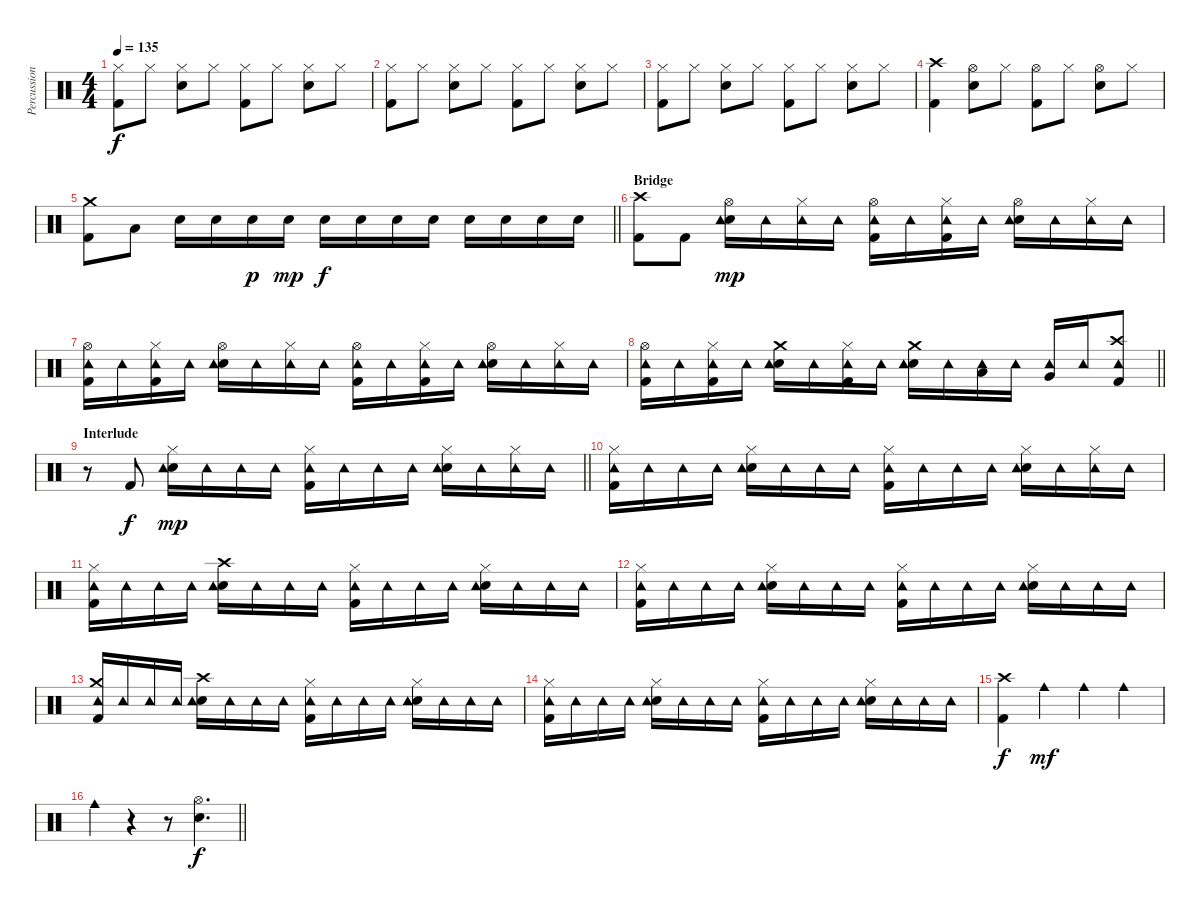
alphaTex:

\track ("Percussion" "Percussion") {instrument percussion}
\staff {score}
\articulation defaults
\ts (4 4)
\tempo 135
\clef neutral
\ks c
("Hi-Hat (closed)" "Kick (hit) 2").8{dy f} "Hi-Hat (closed)".8 ("Hi-Hat (closed)" "Electric Snare (hit)").8 "Hi-Hat (closed)".8 ("Hi-Hat (closed)" "Kick (hit) 2").8 "Hi-Hat (closed)".8 ("Hi-Hat (closed)" "Electric Snare (hit)").8 "Hi-Hat (closed)".8 |
("Hi-Hat (closed)" "Kick (hit) 2").8 "Hi-Hat (closed)".8 ("Hi-Hat (closed)" "Electric Snare (hit)").8 "Hi-Hat (closed)".8 ("Hi-Hat (closed)" "Kick (hit) 2").8 "Hi-Hat (closed)".8 ("Hi-Hat (closed)" "Electric Snare (hit)").8 "Hi-Hat (closed)".8 |
("Hi-Hat (closed)" "Kick (hit) 2").8 "Hi-Hat (closed)".8 ("Hi-Hat (closed)" "Electric Snare (hit)").8 "Hi-Hat (closed)".8 ("Hi-Hat (closed)" "Kick (hit) 2").8 "Hi-Hat (closed)".8 ("Hi-Hat (closed)" "Electric Snare (hit)").8 "Hi-Hat (closed)".8 |
("Crash high (hit)" "Kick (hit) 2").4 ("Hi-Hat (open)" "Electric Snare (hit)").8 "Hi-Hat (closed)".8 ("Hi-Hat (open)" "Kick (hit) 2").8 "Hi-Hat (closed)".8 ("Hi-Hat (open)" "Electric Snare (hit)").8 "Hi-Hat (closed)".8 |
\barLineRight lightlight
("Crash medium (hit)" "Kick (hit) 2").8 "Low Tom (hit)".8 "Electric Snare (hit)".16 "Electric Snare (hit)".16 "Electric Snare (hit)".16{dy p} "Electric Snare (hit)".16{dy mp} "Electric Snare (hit)".16{dy f} "Electric Snare (hit)".16 "Electric Snare (hit)".16 "Electric Snare (hit)".16 "Electric Snare (hit)".16 "Electric Snare (hit)".16 "Electric Snare (hit)".16 "Electric Snare (hit)".16 |
\section ("" "Bridge")
("Crash high (hit)" "Kick (hit) 2").8 "Kick (hit) 2".8 ("Hi-Hat (open)" "Electric Snare (hit)" "Tambourine (hit)").16{dy mp} "Tambourine (hit)".16 ("Hi-Hat (closed)" "Tambourine (hit)").16 "Tambourine (hit)".16 ("Hi-Hat (open)" "Tambourine (hit)" "Kick (hit) 2").16 "Tambourine (hit)".16 ("Hi-Hat (closed)" "Tambourine (hit)" "Kick (hit) 2").16 "Tambourine (hit)".16 ("Hi-Hat (open)" "Electric Snare (hit)" "Tambourine (hit)").16 "Tambourine (hit)".16 ("Hi-Hat (closed)" "Tambourine (hit)").16 "Tambourine (hit)".16 |
("Hi-Hat (open)" "Tambourine (hit)" "Kick (hit) 2").16 "Tambourine (hit)".16 ("Hi-Hat (closed)" "Tambourine (hit)" "Kick (hit) 2").16 "Tambourine (hit)".16 ("Hi-Hat (open)" "Electric Snare (hit)" "Tambourine (hit)").16 "Tambourine (hit)".16 ("Hi-Hat (closed)" "Tambourine (hit)").16 "Tambourine (hit)".16 ("Hi-Hat (open)" "Tambourine (hit)" "Kick (hit) 2").16 "Tambourine (hit)".16 ("Hi-Hat (closed)" "Tambourine (hit)" "Kick (hit) 2").16 "Tambourine (hit)".16 ("Hi-Hat (open)" "Electric Snare (hit)" "Tambourine (hit)").16 "Tambourine (hit)".16 ("Hi-Hat (closed)" "Tambourine (hit)").16 "Tambourine (hit)".16 |
\barLineRight lightlight
("Hi-Hat (open)" "Tambourine (hit)" "Kick (hit) 2").16 "Tambourine (hit)".16 ("Hi-Hat (closed)" "Tambourine (hit)" "Kick (hit) 2").16 "Tambourine (hit)".16 ("Crash medium (hit)" "Electric Snare (hit)" "Tambourine (hit)").16 "Tambourine (hit)".16 ("Hi-Hat (closed)" "Tambourine (hit)" "Kick (hit) 2").16 "Tambourine (hit)".16 ("Crash medium (hit)" "Electric Snare (hit)" "Tambourine (hit)").16 "Tambourine (hit)".16 ("Low Tom (hit)" "Tambourine (hit)").16 "Tambourine (hit)".16 ("Very Low Tom (hit)" "Tambourine (hit)").16 "Tambourine (hit)".16 ("Crash high (hit)" "Tambourine (hit)" "Kick (hit) 2").8 |
\section ("" "Interlude")
\barLineRight lightlight
r.8 "Kick (hit) 2".8{dy f} ("Hi-Hat (closed)" "Electric Snare (hit)" "Tambourine (hit)").16{dy mp} "Tambourine (hit)".16 "Tambourine (hit)".16 "Tambourine (hit)".16 ("Hi-Hat (closed)" "Tambourine (hit)" "Kick (hit) 2").16 "Tambourine (hit)".16 "Tambourine (hit)".16 "Tambourine (hit)".16 ("Hi-Hat (closed)" "Electric Snare (hit)" "Tambourine (hit)").16 "Tambourine (hit)".16 ("Hi-Hat (closed)" "Tambourine (hit)").16 "Tambourine (hit)".16 |
("Hi-Hat (closed)" "Tambourine (hit)" "Kick (hit) 2").16 "Tambourine (hit)".16 "Tambourine (hit)".16 "Tambourine (hit)".16 ("Hi-Hat (closed)" "Electric Snare (hit)" "Tambourine (hit)").16 "Tambourine (hit)".16 "Tambourine (hit)".16 "Tambourine (hit)".16 ("Hi-Hat (closed)" "Tambourine (hit)" "Kick (hit) 2").16 "Tambourine (hit)".16 "Tambourine (hit)".16 "Tambourine (hit)".16 ("Hi-Hat (closed)" "Electric Snare (hit)" "Tambourine (hit)").16 "Tambourine (hit)".16 ("Hi-Hat (closed)" "Tambourine (hit)").16 "Tambourine (hit)".16 |
("Hi-Hat (closed)" "Tambourine (hit)" "Kick (hit) 2").16 "Tambourine (hit)".16 "Tambourine (hit)".16 "Tambourine (hit)".16 ("Crash high (hit)" "Electric Snare (hit)" "Tambourine (hit)").16 "Tambourine (hit)".16 "Tambourine (hit)".16 "Tambourine (hit)".16 ("Hi-Hat (closed)" "Tambourine (hit)" "Kick (hit) 2").16 "Tambourine (hit)".16 "Tambourine (hit)".16 "Tambourine (hit)".16 ("Hi-Hat (closed)" "Electric Snare (hit)" "Tambourine (hit)").16 "Tambourine (hit)".16 "Tambourine (hit)".16 "Tambourine (hit)".16 |
("Hi-Hat (closed)" "Tambourine (hit)" "Kick (hit) 2").16 "Tambourine (hit)".16 "Tambourine (hit)".16 "Tambourine (hit)".16 ("Hi-Hat (closed)" "Electric Snare (hit)" "Tambourine (hit)").16 "Tambourine (hit)".16 "Tambourine (hit)".16 "Tambourine (hit)".16 ("Hi-Hat (closed)" "Tambourine (hit)" "Kick (hit) 2").16 "Tambourine (hit)".16 "Tambourine (hit)".16 "Tambourine (hit)".16 ("Hi-Hat (closed)" "Electric Snare (hit)" "Tambourine (hit)").16 "Tambourine (hit)".16 "Tambourine (hit)".16 "Tambourine (hit)".16 |
("Crash medium (hit)" "Tambourine (hit)" "Kick (hit) 2").16 "Tambourine (hit)".16 "Tambourine (hit)".16 "Tambourine (hit)".16 ("Crash high (hit)" "Electric Snare (hit)" "Tambourine (hit)").16 "Tambourine (hit)".16 "Tambourine (hit)".16 "Tambourine (hit)".16 ("Hi-Hat (closed)" "Tambourine (hit)" "Kick (hit) 2").16 "Tambourine (hit)".16 "Tambourine (hit)".16 "Tambourine (hit)".16 ("Hi-Hat (closed)" "Electric Snare (hit)" "Tambourine (hit)").16 "Tambourine (hit)".16 "Tambourine (hit)".16 "Tambourine (hit)".16 |
("Hi-Hat (closed)" "Tambourine (hit)" "Kick (hit) 2").16 "Tambourine (hit)".16 "Tambourine (hit)".16 "Tambourine (hit)".16 ("Hi-Hat (closed)" "Electric Snare (hit)" "Tambourine (hit)").16 "Tambourine (hit)".16 "Tambourine (hit)".16 "Tambourine (hit)".16 ("Hi-Hat (closed)" "Tambourine (hit)" "Kick (hit) 2").16 "Tambourine (hit)".16 "Tambourine (hit)".16 "Tambourine (hit)".16 ("Hi-Hat (closed)" "Electric Snare (hit)" "Tambourine (hit)").16 "Tambourine (hit)".16 "Tambourine (hit)".16 "Tambourine (hit)".16 |
("Crash high (hit)" "Kick (hit) 2").4{dy f} "Cowbell medium (hit)".4{dy mf} "Cowbell medium (hit)".4 "Cowbell medium (hit)".4 |
\barLineRight lightlight "Cowbell medium (hit)".4
r.4 r.8 ("Hi-Hat (open)" "Electric Snare (hit)").4{d dy f}
